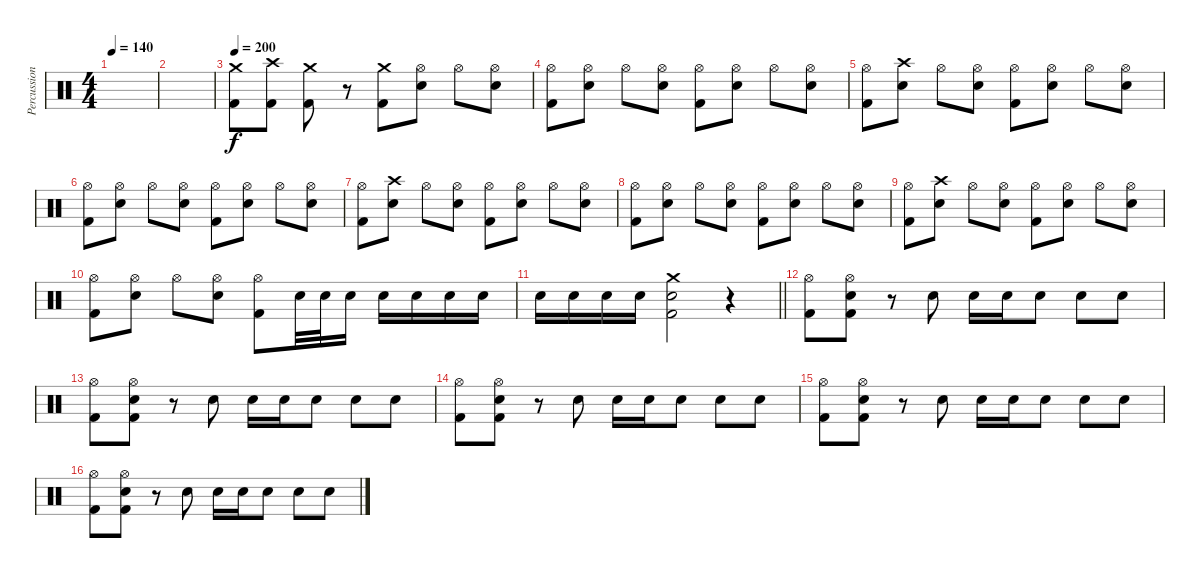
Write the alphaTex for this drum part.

\track ("Percussion" "Percussion") {instrument percussion}
\staff {score}
\articulation defaults
\ts (4 4)
\tempo 140
\clef neutral
\ks c
|
|
\tempo 200
("Crash medium (hit)" "Kick (hit) 2").8 ("Crash high (hit)" "Kick (hit) 2").8 ("Crash medium (hit)" "Kick (hit) 2").8 r.8 ("Crash medium (hit)" "Kick (hit) 2").8 ("Hi-Hat (open)" "Electric Snare (hit)").8 "Hi-Hat (open)".8 ("Hi-Hat (open)" "Electric Snare (hit)").8 |
("Hi-Hat (open)" "Kick (hit) 2").8 ("Hi-Hat (open)" "Electric Snare (hit)").8 "Hi-Hat (open)".8 ("Hi-Hat (open)" "Electric Snare (hit)").8 ("Hi-Hat (open)" "Kick (hit) 2").8 ("Hi-Hat (open)" "Electric Snare (hit)").8 "Hi-Hat (open)".8 ("Hi-Hat (open)" "Electric Snare (hit)").8 |
("Hi-Hat (open)" "Kick (hit) 2").8 ("Crash high (hit)" "Electric Snare (hit)").8 "Hi-Hat (open)".8 ("Hi-Hat (open)" "Electric Snare (hit)").8 ("Hi-Hat (open)" "Kick (hit) 2").8 ("Hi-Hat (open)" "Electric Snare (hit)").8 "Hi-Hat (open)".8 ("Hi-Hat (open)" "Electric Snare (hit)").8 |
("Hi-Hat (open)" "Kick (hit) 2").8 ("Hi-Hat (open)" "Electric Snare (hit)").8 "Hi-Hat (open)".8 ("Hi-Hat (open)" "Electric Snare (hit)").8 ("Hi-Hat (open)" "Kick (hit) 2").8 ("Hi-Hat (open)" "Electric Snare (hit)").8 "Hi-Hat (open)".8 ("Hi-Hat (open)" "Electric Snare (hit)").8 |
("Hi-Hat (open)" "Kick (hit) 2").8 ("Crash high (hit)" "Electric Snare (hit)").8 "Hi-Hat (open)".8 ("Hi-Hat (open)" "Electric Snare (hit)").8 ("Hi-Hat (open)" "Kick (hit) 2").8 ("Hi-Hat (open)" "Electric Snare (hit)").8 "Hi-Hat (open)".8 ("Hi-Hat (open)" "Electric Snare (hit)").8 |
("Hi-Hat (open)" "Kick (hit) 2").8 ("Hi-Hat (open)" "Electric Snare (hit)").8 "Hi-Hat (open)".8 ("Hi-Hat (open)" "Electric Snare (hit)").8 ("Hi-Hat (open)" "Kick (hit) 2").8 ("Hi-Hat (open)" "Electric Snare (hit)").8 "Hi-Hat (open)".8 ("Hi-Hat (open)" "Electric Snare (hit)").8 |
("Hi-Hat (open)" "Kick (hit) 2").8 ("Crash high (hit)" "Electric Snare (hit)").8 "Hi-Hat (open)".8 ("Hi-Hat (open)" "Electric Snare (hit)").8 ("Hi-Hat (open)" "Kick (hit) 2").8 ("Hi-Hat (open)" "Electric Snare (hit)").8 "Hi-Hat (open)".8 ("Hi-Hat (open)" "Electric Snare (hit)").8 |
("Hi-Hat (open)" "Kick (hit) 2").8 ("Hi-Hat (open)" "Electric Snare (hit)").8 "Hi-Hat (open)".8 ("Hi-Hat (open)" "Electric Snare (hit)").8 ("Hi-Hat (open)" "Kick (hit) 2").8 "Electric Snare (hit)".32 "Electric Snare (hit)".32 "Electric Snare (hit)".16 "Electric Snare (hit)".16 "Electric Snare (hit)".16 "Electric Snare (hit)".16 "Electric Snare (hit)".16 |
\barLineRight lightlight "Electric Snare (hit)".16 "Electric Snare (hit)".16 "Electric Snare (hit)".16 "Electric Snare (hit)".16
("Crash medium (hit)" "Electric Snare (hit)" "Kick (hit) 2").2 r.4 |
("Hi-Hat (open)" "Kick (hit) 2").8 ("Hi-Hat (open)" "Electric Snare (hit)" "Kick (hit) 2").8 r.8 "Electric Snare (hit)".8 "Electric Snare (hit)".16 "Electric Snare (hit)".16 "Electric Snare (hit)".8 "Electric Snare (hit)".8 "Electric Snare (hit)".8 |
("Hi-Hat (open)" "Kick (hit) 2").8 ("Hi-Hat (open)" "Electric Snare (hit)" "Kick (hit) 2").8 r.8 "Electric Snare (hit)".8 "Electric Snare (hit)".16 "Electric Snare (hit)".16 "Electric Snare (hit)".8 "Electric Snare (hit)".8 "Electric Snare (hit)".8 |
("Hi-Hat (open)" "Kick (hit) 2").8 ("Hi-Hat (open)" "Electric Snare (hit)" "Kick (hit) 2").8 r.8 "Electric Snare (hit)".8 "Electric Snare (hit)".16 "Electric Snare (hit)".16 "Electric Snare (hit)".8 "Electric Snare (hit)".8 "Electric Snare (hit)".8 |
("Hi-Hat (open)" "Kick (hit) 2").8 ("Hi-Hat (open)" "Electric Snare (hit)" "Kick (hit) 2").8 r.8 "Electric Snare (hit)".8 "Electric Snare (hit)".16 "Electric Snare (hit)".16 "Electric Snare (hit)".8 "Electric Snare (hit)".8 "Electric Snare (hit)".8 |
("Hi-Hat (open)" "Kick (hit) 2").8 ("Hi-Hat (open)" "Electric Snare (hit)" "Kick (hit) 2").8 r.8 "Electric Snare (hit)".8 "Electric Snare (hit)".16 "Electric Snare (hit)".16 "Electric Snare (hit)".8 "Electric Snare (hit)".8 "Electric Snare (hit)".8
